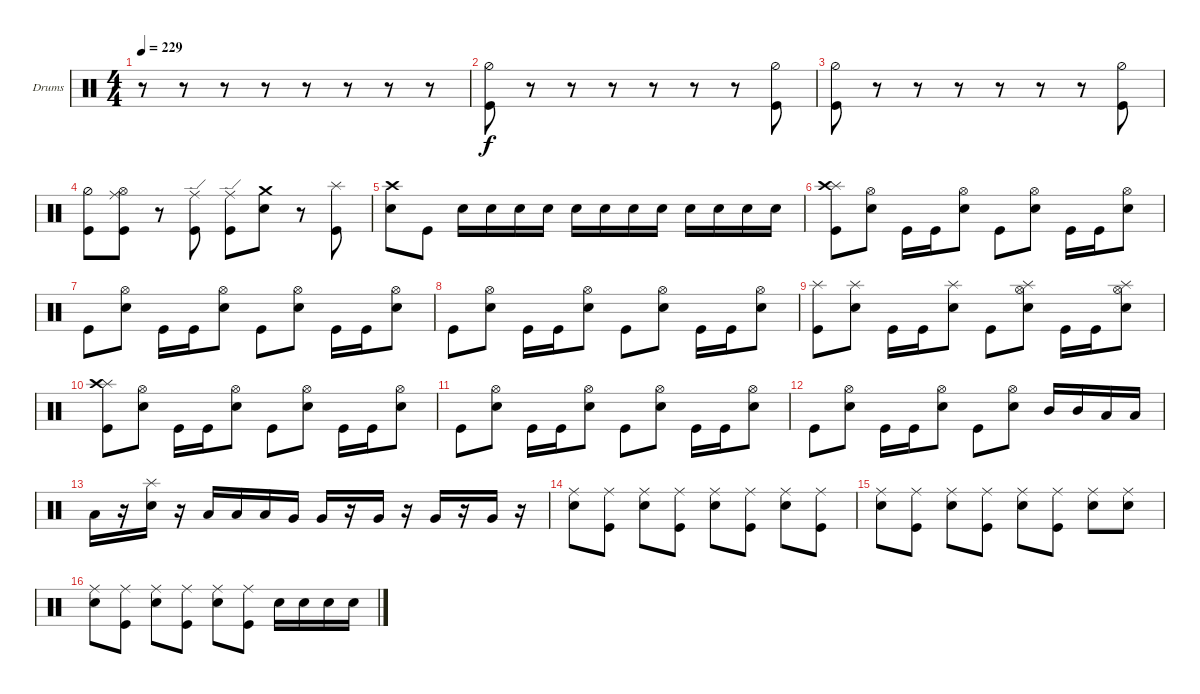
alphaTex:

\defaultSystemsLayout 4
\bracketExtendMode groupsimilarinstruments
\firstSystemTrackNameOrientation horizontal
\otherSystemsTrackNameOrientation horizontal
\track ("Drumkit" "Drums") {instrument percussion}
\staff {score}
\articulation defaults
\ts (4 4)
\tempo 229
\clef neutral
\scale
0.474178
\ks c
r.8{dy f} r.8 r.8 r.8 r.8 r.8 r.8 r.8 |
\scale
0.262911 ("Kick (hit)" "Hi-Hat (half)").8 r.8 r.8 r.8 r.8 r.8 r.8 ("Kick (hit)" "Hi-Hat (half)").8 |
\scale
0.262911 ("Kick (hit)" "Hi-Hat (half)").8 r.8 r.8 r.8 r.8 r.8 r.8 ("Kick (hit)" "Hi-Hat (half)").8 |
("Kick (hit)" "Hi-Hat (half)").8 ("Kick (hit)" "Hi-Hat (open)" "Ride (middle)").8 r.8 ("Kick (hit)" "Ride (edge)").8 ("Kick (hit)" "Ride (edge)").8 ("Snare (hit) 2" "Crash medium (hit)").8 r.8 ("Kick (hit)" "Splash (hit)").8 |
("Snare (hit) 2" "Crash high (hit)").8 "Kick (hit)".8 "Snare (hit) 2".16 "Snare (hit) 2".16 "Snare (hit) 2".16 "Snare (hit) 2".16 "Snare (hit) 2".16 "Snare (hit) 2".16 "Snare (hit) 2".16 "Snare (hit) 2".16 "Snare (hit) 2".16 "Snare (hit) 2".16 "Snare (hit) 2".16 "Snare (hit) 2".16 |
("Kick (hit)" "Splash (hit)" "Crash high (hit)").8 ("Snare (hit) 2" "Hi-Hat (open)").8 "Kick (hit)".16 "Kick (hit)".16 ("Snare (hit) 2" "Hi-Hat (open)").8 "Kick (hit)".8 ("Snare (hit) 2" "Hi-Hat (open)").8 "Kick (hit)".16 "Kick (hit)".16 ("Snare (hit) 2" "Hi-Hat (open)").8 |
"Kick (hit)".8 ("Snare (hit) 2" "Hi-Hat (open)").8 "Kick (hit)".16 "Kick (hit)".16 ("Snare (hit) 2" "Hi-Hat (open)").8 "Kick (hit)".8 ("Snare (hit) 2" "Hi-Hat (open)").8 "Kick (hit)".16 "Kick (hit)".16 ("Snare (hit) 2" "Hi-Hat (open)").8 |
"Kick (hit)".8 ("Snare (hit) 2" "Hi-Hat (open)").8 "Kick (hit)".16 "Kick (hit)".16 ("Snare (hit) 2" "Hi-Hat (open)").8 "Kick (hit)".8 ("Snare (hit) 2" "Hi-Hat (open)").8 "Kick (hit)".16 "Kick (hit)".16 ("Snare (hit) 2" "Hi-Hat (open)").8 |
("Kick (hit)" "Splash (hit)").8 ("Snare (hit) 2" "Splash (hit)").8 "Kick (hit)".16 "Kick (hit)".16 ("Snare (hit) 2" "Splash (hit)").8 "Kick (hit)".8 ("Snare (hit) 2" "Hi-Hat (open)" "Splash (hit)").8 "Kick (hit)".16 "Kick (hit)".16 ("Snare (hit) 2" "Hi-Hat (open)" "Splash (hit)").8 |
("Kick (hit)" "Splash (hit)" "Crash high (hit)").8 ("Snare (hit) 2" "Hi-Hat (open)").8 "Kick (hit)".16 "Kick (hit)".16 ("Snare (hit) 2" "Hi-Hat (open)").8 "Kick (hit)".8 ("Snare (hit) 2" "Hi-Hat (open)").8 "Kick (hit)".16 "Kick (hit)".16 ("Snare (hit) 2" "Hi-Hat (open)").8 |
"Kick (hit)".8 ("Snare (hit) 2" "Hi-Hat (open)").8 "Kick (hit)".16 "Kick (hit)".16 ("Snare (hit) 2" "Hi-Hat (open)").8 "Kick (hit)".8 ("Snare (hit) 2" "Hi-Hat (open)").8 "Kick (hit)".16 "Kick (hit)".16 ("Snare (hit) 2" "Hi-Hat (open)").8 |
"Kick (hit)".8 ("Snare (hit) 2" "Hi-Hat (open)").8 "Kick (hit)".16 "Kick (hit)".16 ("Snare (hit) 2" "Hi-Hat (open)").8 "Kick (hit)".8 ("Snare (hit) 2" "Hi-Hat (open)").8 "Mid Tom (hit)".16 "Mid Tom (hit)".16 "Low Tom (hit)".16 "Low Tom (hit)".16 |
"Low Tom (hit)".16 r.16 ("Snare (hit) 2" "Splash (hit)").16 r.16 "Low Tom (hit)".16 "Low Tom (hit)".16 "Low Tom (hit)".16 "Very Low Tom (hit)".16 "Very Low Tom (hit)".16 r.16 "Very Low Tom (hit)".16 r.16 "Very Low Tom (hit)".16 r.16 "Very Low Tom (hit)".16 r.16 |
("Snare (hit) 2" "Ride (middle)").8 ("Kick (hit)" "Ride (middle)").8 ("Snare (hit) 2" "Ride (middle)").8 ("Kick (hit)" "Ride (middle)").8 ("Snare (hit) 2" "Ride (middle)").8 ("Kick (hit)" "Ride (middle)").8 ("Snare (hit) 2" "Ride (middle)").8 ("Kick (hit)" "Ride (middle)").8 |
("Snare (hit) 2" "Ride (middle)").8 ("Kick (hit)" "Ride (middle)").8 ("Snare (hit) 2" "Ride (middle)").8 ("Kick (hit)" "Ride (middle)").8 ("Snare (hit) 2" "Ride (middle)").8 ("Kick (hit)" "Ride (middle)").8 ("Snare (hit) 2" "Ride (middle)").8 ("Snare (hit) 2" "Ride (middle)").8 |
("Snare (hit) 2" "Ride (middle)").8 ("Kick (hit)" "Ride (middle)").8 ("Snare (hit) 2" "Ride (middle)").8 ("Kick (hit)" "Ride (middle)").8 ("Snare (hit) 2" "Ride (middle)").8 ("Kick (hit)" "Ride (middle)").8 "Snare (hit) 2".16 "Snare (hit) 2".16 "Snare (hit) 2".16 "Snare (hit) 2".16
